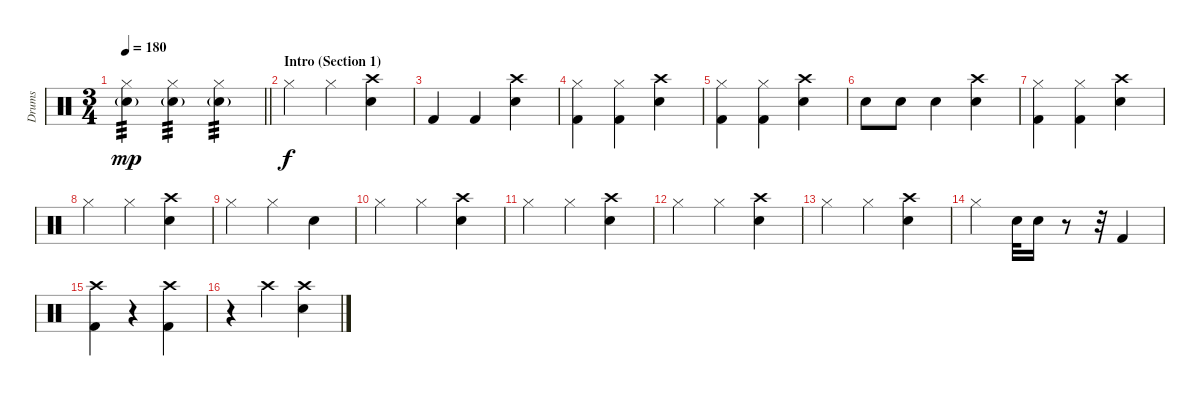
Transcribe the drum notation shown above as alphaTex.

\track ("Drums" "Drums") {instrument percussion}
\staff {score}
\articulation defaults
\ts (3 4)
\tempo 180
\clef neutral
\barLineRight lightlight
\ks c
("Electric Snare (hit)"{g} "Hi-Hat (closed)").4{tp 3 dy mp} ("Electric Snare (hit)"{g} "Hi-Hat (closed)").4{tp 3} ("Electric Snare (hit)"{g} "Hi-Hat (closed)").4{tp 3} |
\section ("" "Intro (Section 1)")
"Hi-Hat (closed)".4{dy f} "Hi-Hat (closed)".4 ("Electric Snare (hit)" "Crash high (hit)").4 |
"Kick (hit) 2".4 "Kick (hit) 2".4 ("Electric Snare (hit)" "Crash high (hit)").4 |
("Kick (hit) 2" "Hi-Hat (closed)").4 ("Kick (hit) 2" "Hi-Hat (closed)").4 ("Electric Snare (hit)" "Crash high (hit)").4 |
("Kick (hit) 2" "Hi-Hat (closed)").4 ("Kick (hit) 2" "Hi-Hat (closed)").4 ("Electric Snare (hit)" "Crash high (hit)").4 |
"Electric Snare (hit)".8 "Electric Snare (hit)".8 "Snare (hit) 2".4 ("Electric Snare (hit)" "Crash high (hit)").4 |
("Kick (hit) 2" "Hi-Hat (closed)").4 ("Kick (hit) 2" "Hi-Hat (closed)").4 ("Electric Snare (hit)" "Crash high (hit)").4 |
"Hi-Hat (closed)".4 "Hi-Hat (closed)".4 ("Electric Snare (hit)" "Crash high (hit)").4 |
"Hi-Hat (closed)".4 "Hi-Hat (closed)".4 "Snare (hit) 2".4 |
"Hi-Hat (closed)".4 "Hi-Hat (closed)".4 ("Electric Snare (hit)" "Crash high (hit)").4 |
"Hi-Hat (closed)".4 "Hi-Hat (closed)".4 ("Electric Snare (hit)" "Crash high (hit)").4 |
"Hi-Hat (closed)".4 "Hi-Hat (closed)".4 ("Electric Snare (hit)" "Crash high (hit)").4 |
"Hi-Hat (closed)".4 "Hi-Hat (closed)".4 ("Electric Snare (hit)" "Crash high (hit)").4 |
"Hi-Hat (closed)".4 "Electric Snare (hit)".32 "Electric Snare (hit)".16 r.8 r.32 "Kick (hit) 2".4 |
("Kick (hit) 2" "Crash high (hit)").4 r.4 ("Kick (hit) 2" "Crash high (hit)").4 |
r.4 "Crash high (hit)".4 ("Snare (hit) 2" "Crash high (hit)").4
